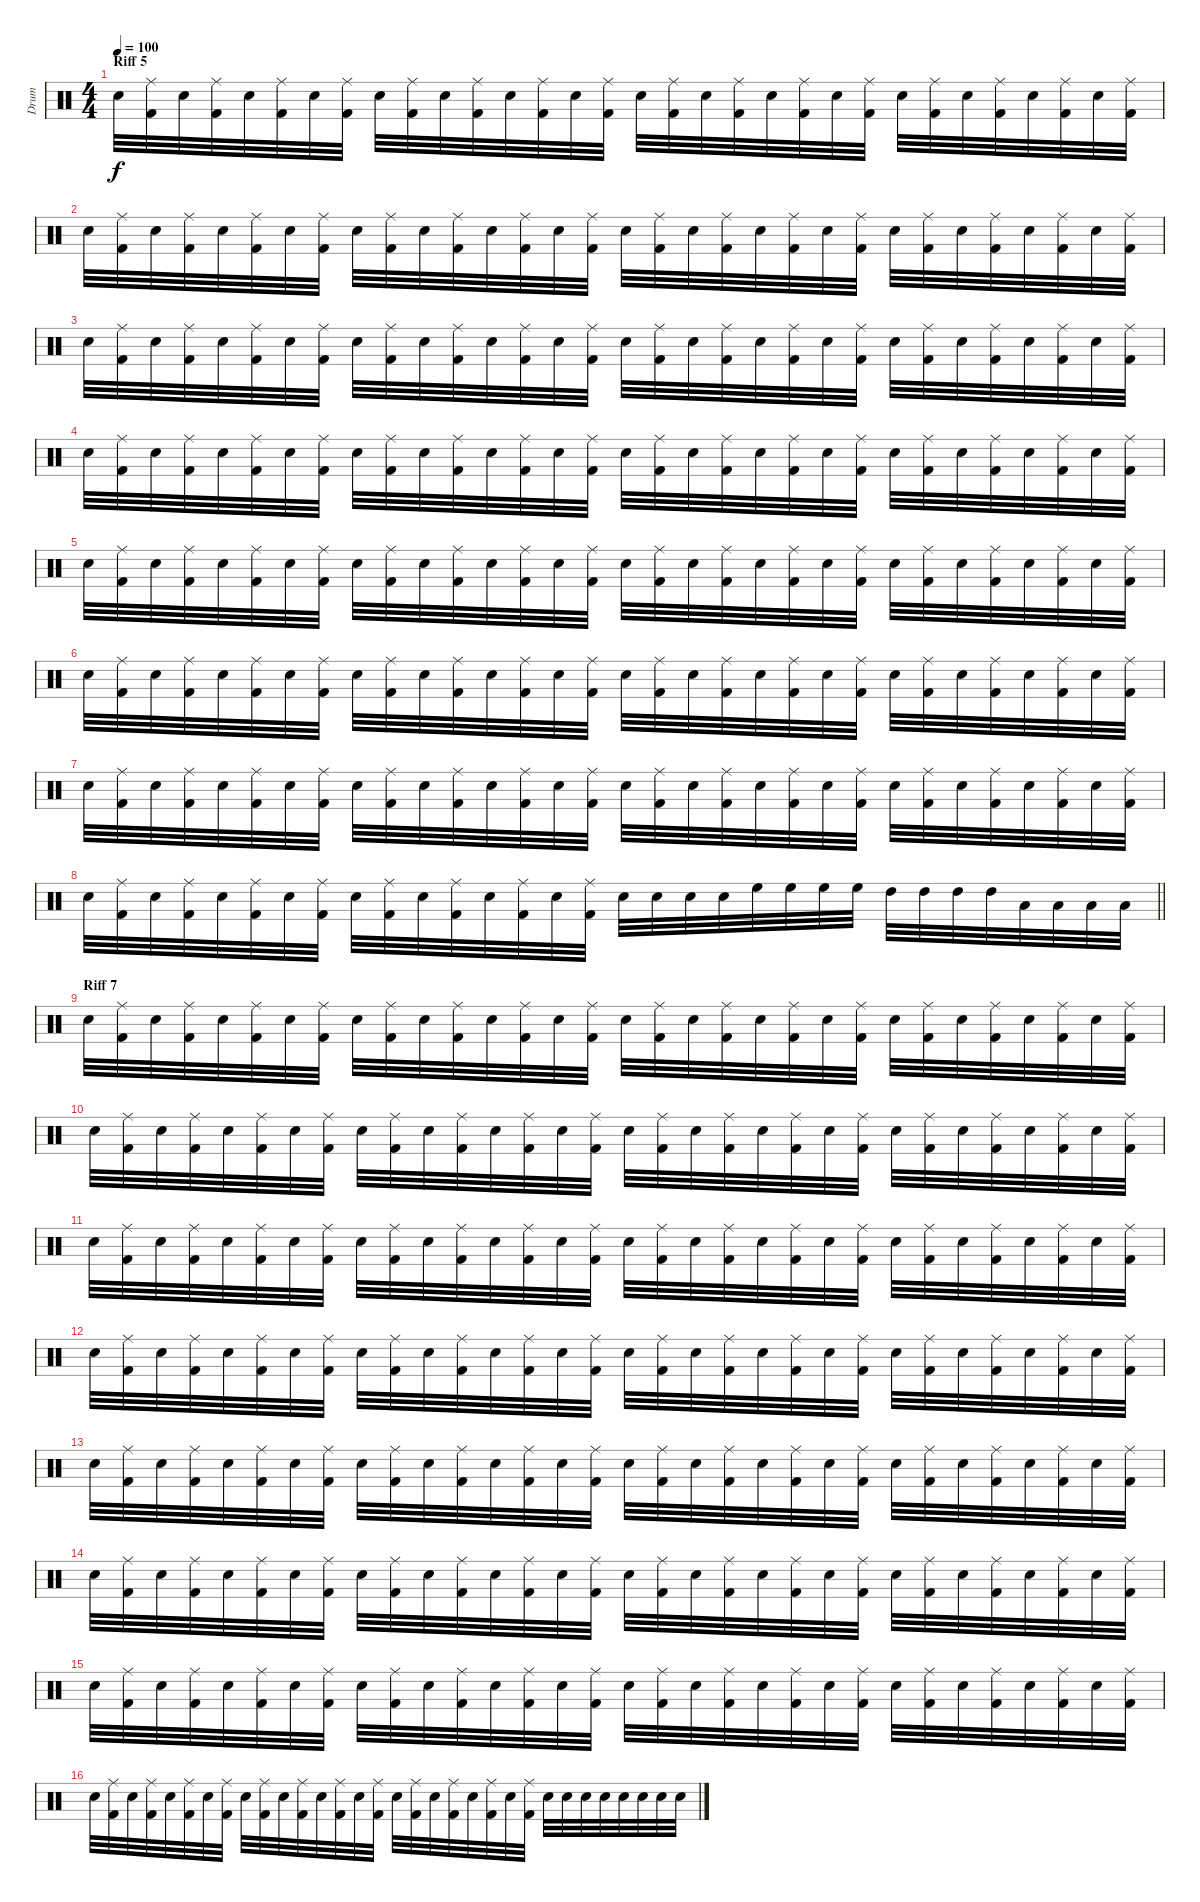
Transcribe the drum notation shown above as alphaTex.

\track ("Drum" "Drum") {instrument percussion}
\staff {score}
\articulation defaults
\ts (4 4)
\section ("" "Riff 5")
\tempo 100
\clef neutral
\ks c "Electric Snare (hit)".32{dy f}
("Ride (middle)" "Kick (hit) 2").32 "Electric Snare (hit)".32 ("Ride (middle)" "Kick (hit) 2").32 "Electric Snare (hit)".32 ("Ride (middle)" "Kick (hit) 2").32 "Electric Snare (hit)".32 ("Ride (middle)" "Kick (hit) 2").32 "Electric Snare (hit)".32 ("Ride (middle)" "Kick (hit) 2").32 "Electric Snare (hit)".32 ("Ride (middle)" "Kick (hit) 2").32 "Electric Snare (hit)".32 ("Ride (middle)" "Kick (hit) 2").32 "Electric Snare (hit)".32 ("Ride (middle)" "Kick (hit) 2").32 "Electric Snare (hit)".32 ("Ride (middle)" "Kick (hit) 2").32 "Electric Snare (hit)".32 ("Ride (middle)" "Kick (hit) 2").32 "Electric Snare (hit)".32 ("Ride (middle)" "Kick (hit) 2").32 "Electric Snare (hit)".32 ("Ride (middle)" "Kick (hit) 2").32 "Electric Snare (hit)".32 ("Ride (middle)" "Kick (hit) 2").32 "Electric Snare (hit)".32 ("Ride (middle)" "Kick (hit) 2").32 "Electric Snare (hit)".32 ("Ride (middle)" "Kick (hit) 2").32 "Electric Snare (hit)".32 ("Ride (middle)" "Kick (hit) 2").32 |
"Electric Snare (hit)".32 ("Ride (middle)" "Kick (hit) 2").32 "Electric Snare (hit)".32 ("Ride (middle)" "Kick (hit) 2").32 "Electric Snare (hit)".32 ("Ride (middle)" "Kick (hit) 2").32 "Electric Snare (hit)".32 ("Ride (middle)" "Kick (hit) 2").32 "Electric Snare (hit)".32 ("Ride (middle)" "Kick (hit) 2").32 "Electric Snare (hit)".32 ("Ride (middle)" "Kick (hit) 2").32 "Electric Snare (hit)".32 ("Ride (middle)" "Kick (hit) 2").32 "Electric Snare (hit)".32 ("Ride (middle)" "Kick (hit) 2").32 "Electric Snare (hit)".32 ("Ride (middle)" "Kick (hit) 2").32 "Electric Snare (hit)".32 ("Ride (middle)" "Kick (hit) 2").32 "Electric Snare (hit)".32 ("Ride (middle)" "Kick (hit) 2").32 "Electric Snare (hit)".32 ("Ride (middle)" "Kick (hit) 2").32 "Electric Snare (hit)".32 ("Ride (middle)" "Kick (hit) 2").32 "Electric Snare (hit)".32 ("Ride (middle)" "Kick (hit) 2").32 "Electric Snare (hit)".32 ("Ride (middle)" "Kick (hit) 2").32 "Electric Snare (hit)".32 ("Ride (middle)" "Kick (hit) 2").32 |
"Electric Snare (hit)".32 ("Ride (middle)" "Kick (hit) 2").32 "Electric Snare (hit)".32 ("Ride (middle)" "Kick (hit) 2").32 "Electric Snare (hit)".32 ("Ride (middle)" "Kick (hit) 2").32 "Electric Snare (hit)".32 ("Ride (middle)" "Kick (hit) 2").32 "Electric Snare (hit)".32 ("Ride (middle)" "Kick (hit) 2").32 "Electric Snare (hit)".32 ("Ride (middle)" "Kick (hit) 2").32 "Electric Snare (hit)".32 ("Ride (middle)" "Kick (hit) 2").32 "Electric Snare (hit)".32 ("Ride (middle)" "Kick (hit) 2").32 "Electric Snare (hit)".32 ("Ride (middle)" "Kick (hit) 2").32 "Electric Snare (hit)".32 ("Ride (middle)" "Kick (hit) 2").32 "Electric Snare (hit)".32 ("Ride (middle)" "Kick (hit) 2").32 "Electric Snare (hit)".32 ("Ride (middle)" "Kick (hit) 2").32 "Electric Snare (hit)".32 ("Ride (middle)" "Kick (hit) 2").32 "Electric Snare (hit)".32 ("Ride (middle)" "Kick (hit) 2").32 "Electric Snare (hit)".32 ("Ride (middle)" "Kick (hit) 2").32 "Electric Snare (hit)".32 ("Ride (middle)" "Kick (hit) 2").32 |
"Electric Snare (hit)".32 ("Ride (middle)" "Kick (hit) 2").32 "Electric Snare (hit)".32 ("Ride (middle)" "Kick (hit) 2").32 "Electric Snare (hit)".32 ("Ride (middle)" "Kick (hit) 2").32 "Electric Snare (hit)".32 ("Ride (middle)" "Kick (hit) 2").32 "Electric Snare (hit)".32 ("Ride (middle)" "Kick (hit) 2").32 "Electric Snare (hit)".32 ("Ride (middle)" "Kick (hit) 2").32 "Electric Snare (hit)".32 ("Ride (middle)" "Kick (hit) 2").32 "Electric Snare (hit)".32 ("Ride (middle)" "Kick (hit) 2").32 "Electric Snare (hit)".32 ("Ride (middle)" "Kick (hit) 2").32 "Electric Snare (hit)".32 ("Ride (middle)" "Kick (hit) 2").32 "Electric Snare (hit)".32 ("Ride (middle)" "Kick (hit) 2").32 "Electric Snare (hit)".32 ("Ride (middle)" "Kick (hit) 2").32 "Electric Snare (hit)".32 ("Ride (middle)" "Kick (hit) 2").32 "Electric Snare (hit)".32 ("Ride (middle)" "Kick (hit) 2").32 "Electric Snare (hit)".32 ("Ride (middle)" "Kick (hit) 2").32 "Electric Snare (hit)".32 ("Ride (middle)" "Kick (hit) 2").32 |
"Electric Snare (hit)".32 ("Ride (middle)" "Kick (hit) 2").32 "Electric Snare (hit)".32 ("Ride (middle)" "Kick (hit) 2").32 "Electric Snare (hit)".32 ("Ride (middle)" "Kick (hit) 2").32 "Electric Snare (hit)".32 ("Ride (middle)" "Kick (hit) 2").32 "Electric Snare (hit)".32 ("Ride (middle)" "Kick (hit) 2").32 "Electric Snare (hit)".32 ("Ride (middle)" "Kick (hit) 2").32 "Electric Snare (hit)".32 ("Ride (middle)" "Kick (hit) 2").32 "Electric Snare (hit)".32 ("Ride (middle)" "Kick (hit) 2").32 "Electric Snare (hit)".32 ("Ride (middle)" "Kick (hit) 2").32 "Electric Snare (hit)".32 ("Ride (middle)" "Kick (hit) 2").32 "Electric Snare (hit)".32 ("Ride (middle)" "Kick (hit) 2").32 "Electric Snare (hit)".32 ("Ride (middle)" "Kick (hit) 2").32 "Electric Snare (hit)".32 ("Ride (middle)" "Kick (hit) 2").32 "Electric Snare (hit)".32 ("Ride (middle)" "Kick (hit) 2").32 "Electric Snare (hit)".32 ("Ride (middle)" "Kick (hit) 2").32 "Electric Snare (hit)".32 ("Ride (middle)" "Kick (hit) 2").32 |
"Electric Snare (hit)".32 ("Ride (middle)" "Kick (hit) 2").32 "Electric Snare (hit)".32 ("Ride (middle)" "Kick (hit) 2").32 "Electric Snare (hit)".32 ("Ride (middle)" "Kick (hit) 2").32 "Electric Snare (hit)".32 ("Ride (middle)" "Kick (hit) 2").32 "Electric Snare (hit)".32 ("Ride (middle)" "Kick (hit) 2").32 "Electric Snare (hit)".32 ("Ride (middle)" "Kick (hit) 2").32 "Electric Snare (hit)".32 ("Ride (middle)" "Kick (hit) 2").32 "Electric Snare (hit)".32 ("Ride (middle)" "Kick (hit) 2").32 "Electric Snare (hit)".32 ("Ride (middle)" "Kick (hit) 2").32 "Electric Snare (hit)".32 ("Ride (middle)" "Kick (hit) 2").32 "Electric Snare (hit)".32 ("Ride (middle)" "Kick (hit) 2").32 "Electric Snare (hit)".32 ("Ride (middle)" "Kick (hit) 2").32 "Electric Snare (hit)".32 ("Ride (middle)" "Kick (hit) 2").32 "Electric Snare (hit)".32 ("Ride (middle)" "Kick (hit) 2").32 "Electric Snare (hit)".32 ("Ride (middle)" "Kick (hit) 2").32 "Electric Snare (hit)".32 ("Ride (middle)" "Kick (hit) 2").32 |
"Electric Snare (hit)".32 ("Ride (middle)" "Kick (hit) 2").32 "Electric Snare (hit)".32 ("Ride (middle)" "Kick (hit) 2").32 "Electric Snare (hit)".32 ("Ride (middle)" "Kick (hit) 2").32 "Electric Snare (hit)".32 ("Ride (middle)" "Kick (hit) 2").32 "Electric Snare (hit)".32 ("Ride (middle)" "Kick (hit) 2").32 "Electric Snare (hit)".32 ("Ride (middle)" "Kick (hit) 2").32 "Electric Snare (hit)".32 ("Ride (middle)" "Kick (hit) 2").32 "Electric Snare (hit)".32 ("Ride (middle)" "Kick (hit) 2").32 "Electric Snare (hit)".32 ("Ride (middle)" "Kick (hit) 2").32 "Electric Snare (hit)".32 ("Ride (middle)" "Kick (hit) 2").32 "Electric Snare (hit)".32 ("Ride (middle)" "Kick (hit) 2").32 "Electric Snare (hit)".32 ("Ride (middle)" "Kick (hit) 2").32 "Electric Snare (hit)".32 ("Ride (middle)" "Kick (hit) 2").32 "Electric Snare (hit)".32 ("Ride (middle)" "Kick (hit) 2").32 "Electric Snare (hit)".32 ("Ride (middle)" "Kick (hit) 2").32 "Electric Snare (hit)".32 ("Ride (middle)" "Kick (hit) 2").32 |
\barLineRight lightlight "Electric Snare (hit)".32
("Ride (middle)" "Kick (hit) 2").32 "Electric Snare (hit)".32 ("Ride (middle)" "Kick (hit) 2").32 "Electric Snare (hit)".32 ("Ride (middle)" "Kick (hit) 2").32 "Electric Snare (hit)".32 ("Ride (middle)" "Kick (hit) 2").32 "Electric Snare (hit)".32 ("Ride (middle)" "Kick (hit) 2").32 "Electric Snare (hit)".32 ("Ride (middle)" "Kick (hit) 2").32 "Electric Snare (hit)".32 ("Ride (middle)" "Kick (hit) 2").32 "Electric Snare (hit)".32 ("Ride (middle)" "Kick (hit) 2").32 "Electric Snare (hit)".32 "Electric Snare (hit)".32 "Electric Snare (hit)".32 "Electric Snare (hit)".32 "High Floor Tom (hit)".32 "High Floor Tom (hit)".32 "High Floor Tom (hit)".32 "High Floor Tom (hit)".32 "High Tom (hit)".32 "High Tom (hit)".32 "High Tom (hit)".32 "High Tom (hit)".32 "Low Tom (hit)".32 "Low Tom (hit)".32 "Low Tom (hit)".32 "Low Tom (hit)".32 |
\section ("" "Riff 7")
"Electric Snare (hit)".32 ("Ride (middle)" "Kick (hit) 2").32 "Electric Snare (hit)".32 ("Ride (middle)" "Kick (hit) 2").32 "Electric Snare (hit)".32 ("Ride (middle)" "Kick (hit) 2").32 "Electric Snare (hit)".32 ("Ride (middle)" "Kick (hit) 2").32 "Electric Snare (hit)".32 ("Ride (middle)" "Kick (hit) 2").32 "Electric Snare (hit)".32 ("Ride (middle)" "Kick (hit) 2").32 "Electric Snare (hit)".32 ("Ride (middle)" "Kick (hit) 2").32 "Electric Snare (hit)".32 ("Ride (middle)" "Kick (hit) 2").32 "Electric Snare (hit)".32 ("Ride (middle)" "Kick (hit) 2").32 "Electric Snare (hit)".32 ("Ride (middle)" "Kick (hit) 2").32 "Electric Snare (hit)".32 ("Ride (middle)" "Kick (hit) 2").32 "Electric Snare (hit)".32 ("Ride (middle)" "Kick (hit) 2").32 "Electric Snare (hit)".32 ("Ride (middle)" "Kick (hit) 2").32 "Electric Snare (hit)".32 ("Ride (middle)" "Kick (hit) 2").32 "Electric Snare (hit)".32 ("Ride (middle)" "Kick (hit) 2").32 "Electric Snare (hit)".32 ("Ride (middle)" "Kick (hit) 2").32 |
"Electric Snare (hit)".32 ("Ride (middle)" "Kick (hit) 2").32 "Electric Snare (hit)".32 ("Ride (middle)" "Kick (hit) 2").32 "Electric Snare (hit)".32 ("Ride (middle)" "Kick (hit) 2").32 "Electric Snare (hit)".32 ("Ride (middle)" "Kick (hit) 2").32 "Electric Snare (hit)".32 ("Ride (middle)" "Kick (hit) 2").32 "Electric Snare (hit)".32 ("Ride (middle)" "Kick (hit) 2").32 "Electric Snare (hit)".32 ("Ride (middle)" "Kick (hit) 2").32 "Electric Snare (hit)".32 ("Ride (middle)" "Kick (hit) 2").32 "Electric Snare (hit)".32 ("Ride (middle)" "Kick (hit) 2").32 "Electric Snare (hit)".32 ("Ride (middle)" "Kick (hit) 2").32 "Electric Snare (hit)".32 ("Ride (middle)" "Kick (hit) 2").32 "Electric Snare (hit)".32 ("Ride (middle)" "Kick (hit) 2").32 "Electric Snare (hit)".32 ("Ride (middle)" "Kick (hit) 2").32 "Electric Snare (hit)".32 ("Ride (middle)" "Kick (hit) 2").32 "Electric Snare (hit)".32 ("Ride (middle)" "Kick (hit) 2").32 "Electric Snare (hit)".32 ("Ride (middle)" "Kick (hit) 2").32 |
"Electric Snare (hit)".32 ("Ride (middle)" "Kick (hit) 2").32 "Electric Snare (hit)".32 ("Ride (middle)" "Kick (hit) 2").32 "Electric Snare (hit)".32 ("Ride (middle)" "Kick (hit) 2").32 "Electric Snare (hit)".32 ("Ride (middle)" "Kick (hit) 2").32 "Electric Snare (hit)".32 ("Ride (middle)" "Kick (hit) 2").32 "Electric Snare (hit)".32 ("Ride (middle)" "Kick (hit) 2").32 "Electric Snare (hit)".32 ("Ride (middle)" "Kick (hit) 2").32 "Electric Snare (hit)".32 ("Ride (middle)" "Kick (hit) 2").32 "Electric Snare (hit)".32 ("Ride (middle)" "Kick (hit) 2").32 "Electric Snare (hit)".32 ("Ride (middle)" "Kick (hit) 2").32 "Electric Snare (hit)".32 ("Ride (middle)" "Kick (hit) 2").32 "Electric Snare (hit)".32 ("Ride (middle)" "Kick (hit) 2").32 "Electric Snare (hit)".32 ("Ride (middle)" "Kick (hit) 2").32 "Electric Snare (hit)".32 ("Ride (middle)" "Kick (hit) 2").32 "Electric Snare (hit)".32 ("Ride (middle)" "Kick (hit) 2").32 "Electric Snare (hit)".32 ("Ride (middle)" "Kick (hit) 2").32 |
"Electric Snare (hit)".32 ("Ride (middle)" "Kick (hit) 2").32 "Electric Snare (hit)".32 ("Ride (middle)" "Kick (hit) 2").32 "Electric Snare (hit)".32 ("Ride (middle)" "Kick (hit) 2").32 "Electric Snare (hit)".32 ("Ride (middle)" "Kick (hit) 2").32 "Electric Snare (hit)".32 ("Ride (middle)" "Kick (hit) 2").32 "Electric Snare (hit)".32 ("Ride (middle)" "Kick (hit) 2").32 "Electric Snare (hit)".32 ("Ride (middle)" "Kick (hit) 2").32 "Electric Snare (hit)".32 ("Ride (middle)" "Kick (hit) 2").32 "Electric Snare (hit)".32 ("Ride (middle)" "Kick (hit) 2").32 "Electric Snare (hit)".32 ("Ride (middle)" "Kick (hit) 2").32 "Electric Snare (hit)".32 ("Ride (middle)" "Kick (hit) 2").32 "Electric Snare (hit)".32 ("Ride (middle)" "Kick (hit) 2").32 "Electric Snare (hit)".32 ("Ride (middle)" "Kick (hit) 2").32 "Electric Snare (hit)".32 ("Ride (middle)" "Kick (hit) 2").32 "Electric Snare (hit)".32 ("Ride (middle)" "Kick (hit) 2").32 "Electric Snare (hit)".32 ("Ride (middle)" "Kick (hit) 2").32 |
"Electric Snare (hit)".32 ("Ride (middle)" "Kick (hit) 2").32 "Electric Snare (hit)".32 ("Ride (middle)" "Kick (hit) 2").32 "Electric Snare (hit)".32 ("Ride (middle)" "Kick (hit) 2").32 "Electric Snare (hit)".32 ("Ride (middle)" "Kick (hit) 2").32 "Electric Snare (hit)".32 ("Ride (middle)" "Kick (hit) 2").32 "Electric Snare (hit)".32 ("Ride (middle)" "Kick (hit) 2").32 "Electric Snare (hit)".32 ("Ride (middle)" "Kick (hit) 2").32 "Electric Snare (hit)".32 ("Ride (middle)" "Kick (hit) 2").32 "Electric Snare (hit)".32 ("Ride (middle)" "Kick (hit) 2").32 "Electric Snare (hit)".32 ("Ride (middle)" "Kick (hit) 2").32 "Electric Snare (hit)".32 ("Ride (middle)" "Kick (hit) 2").32 "Electric Snare (hit)".32 ("Ride (middle)" "Kick (hit) 2").32 "Electric Snare (hit)".32 ("Ride (middle)" "Kick (hit) 2").32 "Electric Snare (hit)".32 ("Ride (middle)" "Kick (hit) 2").32 "Electric Snare (hit)".32 ("Ride (middle)" "Kick (hit) 2").32 "Electric Snare (hit)".32 ("Ride (middle)" "Kick (hit) 2").32 |
"Electric Snare (hit)".32 ("Ride (middle)" "Kick (hit) 2").32 "Electric Snare (hit)".32 ("Ride (middle)" "Kick (hit) 2").32 "Electric Snare (hit)".32 ("Ride (middle)" "Kick (hit) 2").32 "Electric Snare (hit)".32 ("Ride (middle)" "Kick (hit) 2").32 "Electric Snare (hit)".32 ("Ride (middle)" "Kick (hit) 2").32 "Electric Snare (hit)".32 ("Ride (middle)" "Kick (hit) 2").32 "Electric Snare (hit)".32 ("Ride (middle)" "Kick (hit) 2").32 "Electric Snare (hit)".32 ("Ride (middle)" "Kick (hit) 2").32 "Electric Snare (hit)".32 ("Ride (middle)" "Kick (hit) 2").32 "Electric Snare (hit)".32 ("Ride (middle)" "Kick (hit) 2").32 "Electric Snare (hit)".32 ("Ride (middle)" "Kick (hit) 2").32 "Electric Snare (hit)".32 ("Ride (middle)" "Kick (hit) 2").32 "Electric Snare (hit)".32 ("Ride (middle)" "Kick (hit) 2").32 "Electric Snare (hit)".32 ("Ride (middle)" "Kick (hit) 2").32 "Electric Snare (hit)".32 ("Ride (middle)" "Kick (hit) 2").32 "Electric Snare (hit)".32 ("Ride (middle)" "Kick (hit) 2").32 |
"Electric Snare (hit)".32 ("Ride (middle)" "Kick (hit) 2").32 "Electric Snare (hit)".32 ("Ride (middle)" "Kick (hit) 2").32 "Electric Snare (hit)".32 ("Ride (middle)" "Kick (hit) 2").32 "Electric Snare (hit)".32 ("Ride (middle)" "Kick (hit) 2").32 "Electric Snare (hit)".32 ("Ride (middle)" "Kick (hit) 2").32 "Electric Snare (hit)".32 ("Ride (middle)" "Kick (hit) 2").32 "Electric Snare (hit)".32 ("Ride (middle)" "Kick (hit) 2").32 "Electric Snare (hit)".32 ("Ride (middle)" "Kick (hit) 2").32 "Electric Snare (hit)".32 ("Ride (middle)" "Kick (hit) 2").32 "Electric Snare (hit)".32 ("Ride (middle)" "Kick (hit) 2").32 "Electric Snare (hit)".32 ("Ride (middle)" "Kick (hit) 2").32 "Electric Snare (hit)".32 ("Ride (middle)" "Kick (hit) 2").32 "Electric Snare (hit)".32 ("Ride (middle)" "Kick (hit) 2").32 "Electric Snare (hit)".32 ("Ride (middle)" "Kick (hit) 2").32 "Electric Snare (hit)".32 ("Ride (middle)" "Kick (hit) 2").32 "Electric Snare (hit)".32 ("Ride (middle)" "Kick (hit) 2").32 |
"Electric Snare (hit)".32 ("Ride (middle)" "Kick (hit) 2").32 "Electric Snare (hit)".32 ("Ride (middle)" "Kick (hit) 2").32 "Electric Snare (hit)".32 ("Ride (middle)" "Kick (hit) 2").32 "Electric Snare (hit)".32 ("Ride (middle)" "Kick (hit) 2").32 "Electric Snare (hit)".32 ("Ride (middle)" "Kick (hit) 2").32 "Electric Snare (hit)".32 ("Ride (middle)" "Kick (hit) 2").32 "Electric Snare (hit)".32 ("Ride (middle)" "Kick (hit) 2").32 "Electric Snare (hit)".32 ("Ride (middle)" "Kick (hit) 2").32 "Electric Snare (hit)".32 ("Ride (middle)" "Kick (hit) 2").32 "Electric Snare (hit)".32 ("Ride (middle)" "Kick (hit) 2").32 "Electric Snare (hit)".32 ("Ride (middle)" "Kick (hit) 2").32 "Electric Snare (hit)".32 ("Ride (middle)" "Kick (hit) 2").32 "Electric Snare (hit)".32 "Electric Snare (hit)".32 "Electric Snare (hit)".32 "Electric Snare (hit)".32 "Electric Snare (hit)".32 "Electric Snare (hit)".32 "Electric Snare (hit)".32 "Electric Snare (hit)".32
